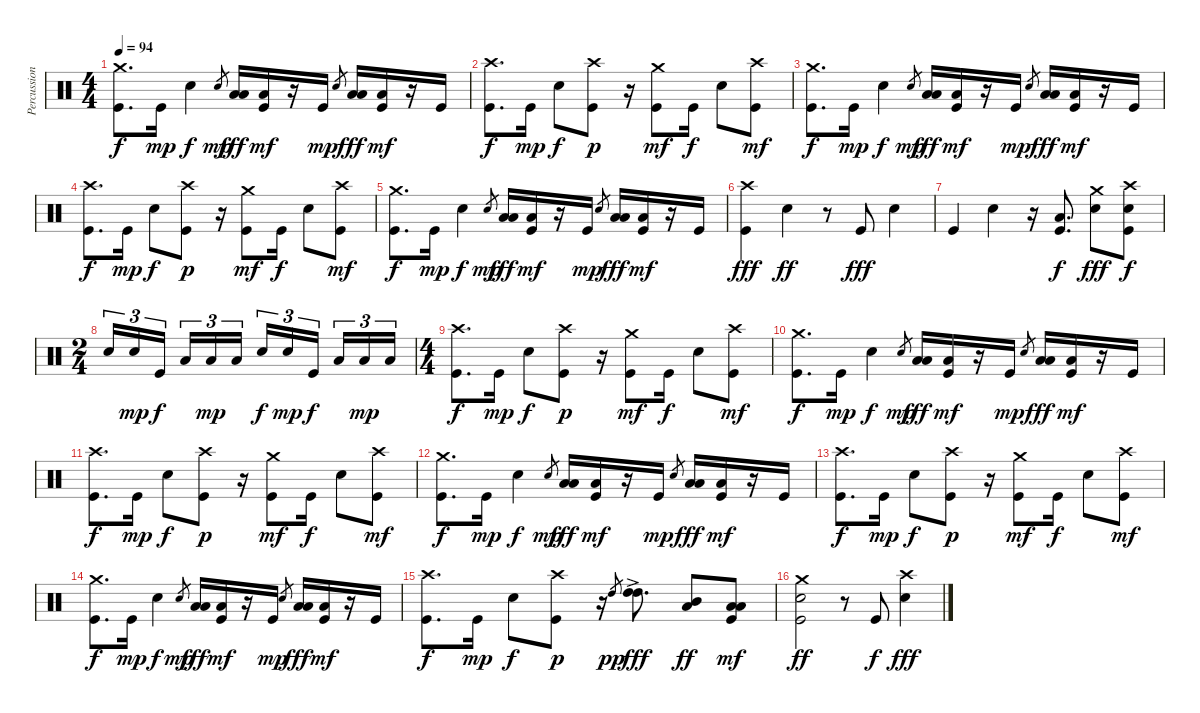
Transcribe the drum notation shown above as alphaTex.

\track ("Percussions" "Percussion") {instrument percussion}
\staff {score}
\articulation defaults
\ts (4 4)
\tempo 94
\clef neutral
\ks c
("Crash medium (hit)" "Kick (hit)").8{d dy f} "Kick (hit)".16{dy mp} "Snare (hit) 2".4{dy f} "Snare (hit) 2".8{gr dy mp} ("Low Tom (hit)" "Low Floor Tom (hit)").16{dy fff} ("Low Floor Tom (hit)" "Kick (hit)").16{dy mf} r.16 "Kick (hit)".16{dy mp} "Snare (hit) 2".8{gr} ("Low Tom (hit)" "Low Floor Tom (hit)").16{dy fff} ("Low Floor Tom (hit)" "Kick (hit)").16{dy mf} r.16 "Kick (hit)".16 |
("Crash high (hit)" "Kick (hit)").8{d dy f} "Kick (hit)".16{dy mp} "Snare (hit) 2".8{dy f} ("Crash high (hit)" "Kick (hit)").8{dy p} r.16 ("Crash medium (hit)" "Kick (hit)").8{dy mf} "Kick (hit)".16{dy f} "Snare (hit) 2".8 ("Crash high (hit)" "Kick (hit)").8{dy mf} |
("Crash medium (hit)" "Kick (hit)").8{d dy f} "Kick (hit)".16{dy mp} "Snare (hit) 2".4{dy f} "Snare (hit) 2".8{gr dy mp} ("Low Tom (hit)" "Low Floor Tom (hit)").16{dy fff} ("Low Floor Tom (hit)" "Kick (hit)").16{dy mf} r.16 "Kick (hit)".16{dy mp} "Snare (hit) 2".8{gr} ("Low Tom (hit)" "Low Floor Tom (hit)").16{dy fff} ("Low Floor Tom (hit)" "Kick (hit)").16{dy mf} r.16 "Kick (hit)".16 |
("Crash high (hit)" "Kick (hit)").8{d dy f} "Kick (hit)".16{dy mp} "Snare (hit) 2".8{dy f} ("Crash high (hit)" "Kick (hit)").8{dy p} r.16 ("Crash medium (hit)" "Kick (hit)").8{dy mf} "Kick (hit)".16{dy f} "Snare (hit) 2".8 ("Crash high (hit)" "Kick (hit)").8{dy mf} |
("Crash medium (hit)" "Kick (hit)").8{d dy f} "Kick (hit)".16{dy mp} "Snare (hit) 2".4{dy f} "Snare (hit) 2".8{gr dy mp} ("Low Tom (hit)" "Low Floor Tom (hit)").16{dy fff} ("Low Floor Tom (hit)" "Kick (hit)").16{dy mf} r.16 "Kick (hit)".16{dy mp} "Snare (hit) 2".8{gr} ("Low Tom (hit)" "Low Floor Tom (hit)").16{dy fff} ("Low Floor Tom (hit)" "Kick (hit)").16{dy mf} r.16 "Kick (hit)".16 |
("Crash high (hit)" "Kick (hit)").4{dy fff} "Snare (hit) 2".4{dy ff} r.8 "Kick (hit)".8{dy fff} "Snare (hit) 2".4 |
"Kick (hit)".4 "Snare (hit) 2".4 r.16 ("Low Tom (hit)" "Kick (hit)").8{d dy f} ("Crash medium (hit)" "Snare (hit) 2").8{dy fff} ("Crash high (hit)" "Snare (hit) 2" "Kick (hit)").8{dy f} |
\ts (2 4)
"Snare (hit) 2".16{tu (3 2)} "Snare (hit) 2".16{tu (3 2) dy mp} "Kick (hit)".16{tu (3 2) dy f beam splitsecondary} "Low Tom (hit)".16{tu (3 2)} "Low Tom (hit)".16{tu (3 2) dy mp} "Low Floor Tom (hit)".16{tu (3 2)} "Snare (hit) 2".16{tu (3 2) dy f} "Snare (hit) 2".16{tu (3 2) dy mp} "Kick (hit)".16{tu (3 2) dy f beam splitsecondary} "Low Tom (hit)".16{tu (3 2)} "Low Tom (hit)".16{tu (3 2) dy mp} "Low Floor Tom (hit)".16{tu (3 2)} |
\ts (4 4)
("Crash high (hit)" "Kick (hit)").8{d dy f} "Kick (hit)".16{dy mp} "Snare (hit) 2".8{dy f} ("Crash high (hit)" "Kick (hit)").8{dy p} r.16 ("Crash medium (hit)" "Kick (hit)").8{dy mf} "Kick (hit)".16{dy f} "Snare (hit) 2".8 ("Crash high (hit)" "Kick (hit)").8{dy mf} |
("Crash medium (hit)" "Kick (hit)").8{d dy f} "Kick (hit)".16{dy mp} "Snare (hit) 2".4{dy f} "Snare (hit) 2".8{gr dy mp} ("Low Tom (hit)" "Low Floor Tom (hit)").16{dy fff} ("Low Floor Tom (hit)" "Kick (hit)").16{dy mf} r.16 "Kick (hit)".16{dy mp} "Snare (hit) 2".8{gr} ("Low Tom (hit)" "Low Floor Tom (hit)").16{dy fff} ("Low Floor Tom (hit)" "Kick (hit)").16{dy mf} r.16 "Kick (hit)".16 |
("Crash high (hit)" "Kick (hit)").8{d dy f} "Kick (hit)".16{dy mp} "Snare (hit) 2".8{dy f} ("Crash high (hit)" "Kick (hit)").8{dy p} r.16 ("Crash medium (hit)" "Kick (hit)").8{dy mf} "Kick (hit)".16{dy f} "Snare (hit) 2".8 ("Crash high (hit)" "Kick (hit)").8{dy mf} |
("Crash medium (hit)" "Kick (hit)").8{d dy f} "Kick (hit)".16{dy mp} "Snare (hit) 2".4{dy f} "Snare (hit) 2".8{gr dy mp} ("Low Tom (hit)" "Low Floor Tom (hit)").16{dy fff} ("Low Floor Tom (hit)" "Kick (hit)").16{dy mf} r.16 "Kick (hit)".16{dy mp} "Snare (hit) 2".8{gr} ("Low Tom (hit)" "Low Floor Tom (hit)").16{dy fff} ("Low Floor Tom (hit)" "Kick (hit)").16{dy mf} r.16 "Kick (hit)".16 |
("Crash high (hit)" "Kick (hit)").8{d dy f} "Kick (hit)".16{dy mp} "Snare (hit) 2".8{dy f} ("Crash high (hit)" "Kick (hit)").8{dy p} r.16 ("Crash medium (hit)" "Kick (hit)").8{dy mf} "Kick (hit)".16{dy f} "Snare (hit) 2".8 ("Crash high (hit)" "Kick (hit)").8{dy mf} |
("Crash medium (hit)" "Kick (hit)").8{d dy f} "Kick (hit)".16{dy mp} "Snare (hit) 2".4{dy f} "Snare (hit) 2".8{gr dy mp} ("Low Tom (hit)" "Low Floor Tom (hit)").16{dy fff} ("Low Floor Tom (hit)" "Kick (hit)").16{dy mf} r.16 "Kick (hit)".16{dy mp} "Snare (hit) 2".8{gr} ("Low Tom (hit)" "Low Floor Tom (hit)").16{dy fff} ("Low Floor Tom (hit)" "Kick (hit)").16{dy mf} r.16 "Kick (hit)".16 |
("Crash high (hit)" "Kick (hit)").8{d dy f} "Kick (hit)".16{dy mp} "Snare (hit) 2".8{dy f} ("Crash high (hit)" "Kick (hit)").8{dy p} r.16 "High Tom (hit)".8{gr dy pp} ("High Tom (hit)" "High Tom (hit)"{ac}).8{d dy fff} ("Mid Tom (hit)" "Low Tom (hit)").8{dy ff} ("Low Tom (hit)" "Low Floor Tom (hit)" "Kick (hit)").8{dy mf} |
("Crash medium (hit)" "Snare (hit) 2" "Kick (hit)").2{dy ff} r.8 "Kick (hit)".8{dy f} ("Crash high (hit)" "Snare (hit) 2").4{dy fff}
